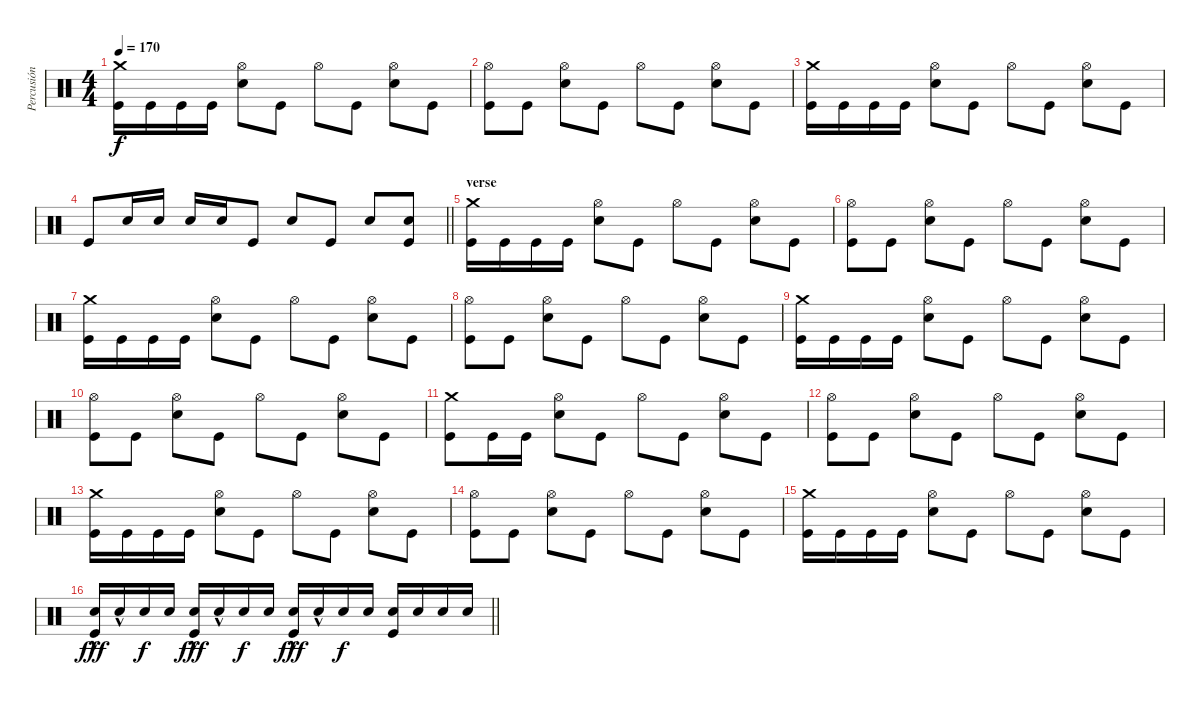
\track ("Percusión" "Percusión") {instrument percussion}
\staff {score}
\articulation defaults
\ts (4 4)
\tempo 170
\clef neutral
\ks c
("Crash medium (hit)" "Kick (hit)").16{dy f} "Kick (hit)".16 "Kick (hit)".16 "Kick (hit)".16 ("Hi-Hat (open)" "Electric Snare (hit)").8 "Kick (hit)".8 "Hi-Hat (open)".8 "Kick (hit)".8 ("Hi-Hat (open)" "Electric Snare (hit)").8 "Kick (hit)".8 |
("Hi-Hat (open)" "Kick (hit)").8 "Kick (hit)".8 ("Hi-Hat (open)" "Electric Snare (hit)").8 "Kick (hit)".8 "Hi-Hat (open)".8 "Kick (hit)".8 ("Hi-Hat (open)" "Electric Snare (hit)").8 "Kick (hit)".8 |
("Crash medium (hit)" "Kick (hit)").16 "Kick (hit)".16 "Kick (hit)".16 "Kick (hit)".16 ("Hi-Hat (open)" "Electric Snare (hit)").8 "Kick (hit)".8 "Hi-Hat (open)".8 "Kick (hit)".8 ("Hi-Hat (open)" "Electric Snare (hit)").8 "Kick (hit)".8 |
\barLineRight lightlight "Kick (hit)".8 "Electric Snare (hit)".16 "Electric Snare (hit)".16 "Electric Snare (hit)".16 "Electric Snare (hit)".16 "Kick (hit)".8 "Electric Snare (hit)".8 "Kick (hit)".8 "Electric Snare (hit)".8
("Electric Snare (hit)" "Kick (hit)").8 |
\section ("" "verse")
("Crash medium (hit)" "Kick (hit)").16 "Kick (hit)".16 "Kick (hit)".16 "Kick (hit)".16 ("Hi-Hat (open)" "Electric Snare (hit)").8 "Kick (hit)".8 "Hi-Hat (open)".8 "Kick (hit)".8 ("Hi-Hat (open)" "Electric Snare (hit)").8 "Kick (hit)".8 |
("Hi-Hat (open)" "Kick (hit)").8 "Kick (hit)".8 ("Hi-Hat (open)" "Electric Snare (hit)").8 "Kick (hit)".8 "Hi-Hat (open)".8 "Kick (hit)".8 ("Hi-Hat (open)" "Electric Snare (hit)").8 "Kick (hit)".8 |
("Crash medium (hit)" "Kick (hit)").16 "Kick (hit)".16 "Kick (hit)".16 "Kick (hit)".16 ("Hi-Hat (open)" "Electric Snare (hit)").8 "Kick (hit)".8 "Hi-Hat (open)".8 "Kick (hit)".8 ("Hi-Hat (open)" "Electric Snare (hit)").8 "Kick (hit)".8 |
("Hi-Hat (open)" "Kick (hit)").8 "Kick (hit)".8 ("Hi-Hat (open)" "Electric Snare (hit)").8 "Kick (hit)".8 "Hi-Hat (open)".8 "Kick (hit)".8 ("Hi-Hat (open)" "Electric Snare (hit)").8 "Kick (hit)".8 |
("Crash medium (hit)" "Kick (hit)").16 "Kick (hit)".16 "Kick (hit)".16 "Kick (hit)".16 ("Hi-Hat (open)" "Electric Snare (hit)").8 "Kick (hit)".8 "Hi-Hat (open)".8 "Kick (hit)".8 ("Hi-Hat (open)" "Electric Snare (hit)").8 "Kick (hit)".8 |
("Hi-Hat (open)" "Kick (hit)").8 "Kick (hit)".8 ("Hi-Hat (open)" "Electric Snare (hit)").8 "Kick (hit)".8 "Hi-Hat (open)".8 "Kick (hit)".8 ("Hi-Hat (open)" "Electric Snare (hit)").8 "Kick (hit)".8 |
("Crash medium (hit)" "Kick (hit)").8 "Kick (hit)".16 "Kick (hit)".16 ("Hi-Hat (open)" "Electric Snare (hit)").8 "Kick (hit)".8 "Hi-Hat (open)".8 "Kick (hit)".8 ("Hi-Hat (open)" "Electric Snare (hit)").8 "Kick (hit)".8 |
("Hi-Hat (open)" "Kick (hit)").8 "Kick (hit)".8 ("Hi-Hat (open)" "Electric Snare (hit)").8 "Kick (hit)".8 "Hi-Hat (open)".8 "Kick (hit)".8 ("Hi-Hat (open)" "Electric Snare (hit)").8 "Kick (hit)".8 |
("Crash medium (hit)" "Kick (hit)").16 "Kick (hit)".16 "Kick (hit)".16 "Kick (hit)".16 ("Hi-Hat (open)" "Electric Snare (hit)").8 "Kick (hit)".8 "Hi-Hat (open)".8 "Kick (hit)".8 ("Hi-Hat (open)" "Electric Snare (hit)").8 "Kick (hit)".8 |
("Hi-Hat (open)" "Kick (hit)").8 "Kick (hit)".8 ("Hi-Hat (open)" "Electric Snare (hit)").8 "Kick (hit)".8 "Hi-Hat (open)".8 "Kick (hit)".8 ("Hi-Hat (open)" "Electric Snare (hit)").8 "Kick (hit)".8 |
("Crash medium (hit)" "Kick (hit)").16 "Kick (hit)".16 "Kick (hit)".16 "Kick (hit)".16 ("Hi-Hat (open)" "Electric Snare (hit)").8 "Kick (hit)".8 "Hi-Hat (open)".8 "Kick (hit)".8 ("Hi-Hat (open)" "Electric Snare (hit)").8 "Kick (hit)".8 |
\barLineRight lightlight
("Electric Snare (hit)"{hac} "Kick (hit)").16{dy fff} "Electric Snare (hit)"{hac}.16 "Electric Snare (hit)".16{dy f} "Electric Snare (hit)".16 ("Electric Snare (hit)"{hac} "Kick (hit)").16{dy fff} "Electric Snare (hit)"{hac}.16 "Electric Snare (hit)".16{dy f} "Electric Snare (hit)".16 ("Electric Snare (hit)"{hac} "Kick (hit)").16{dy fff} "Electric Snare (hit)"{hac}.16 "Electric Snare (hit)".16{dy f} "Electric Snare (hit)".16 ("Electric Snare (hit)" "Kick (hit)").16 "Electric Snare (hit)".16 "Electric Snare (hit)".16 "Electric Snare (hit)".16
